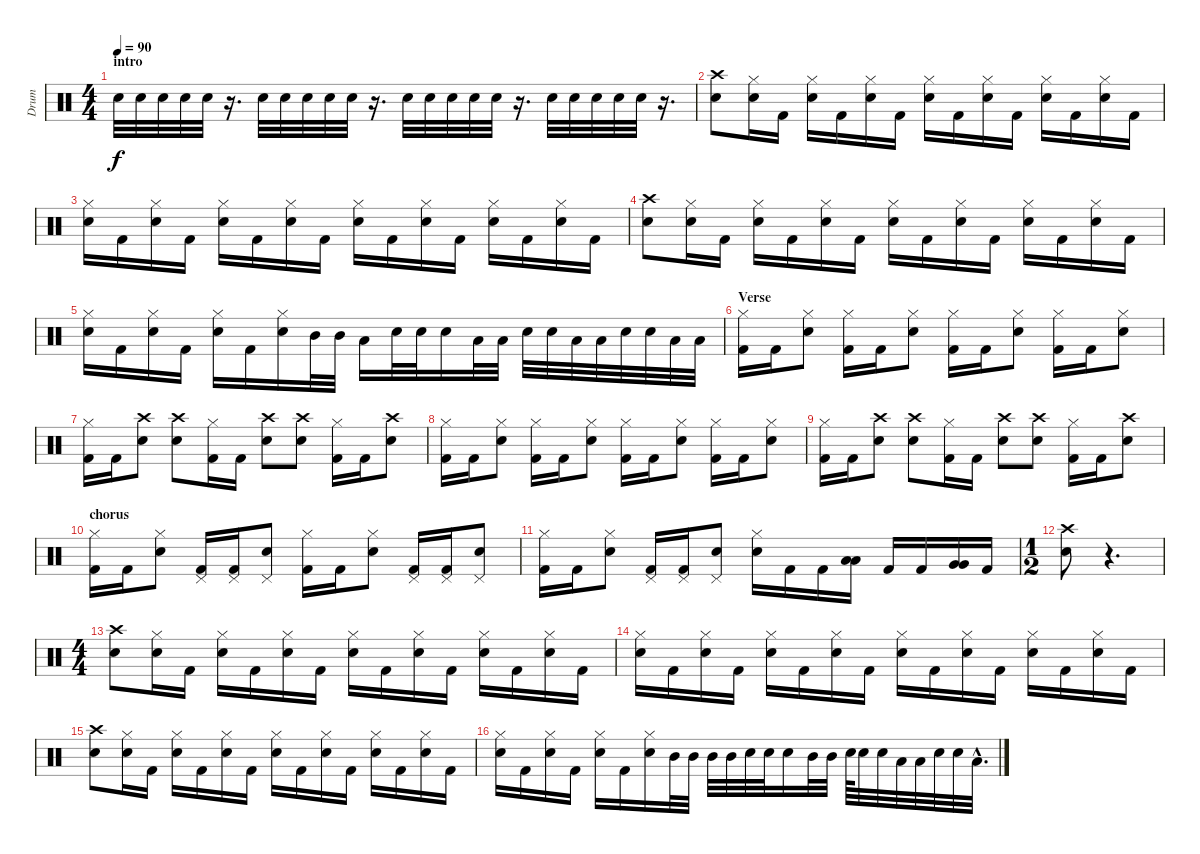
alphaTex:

\track ("Drum" "Drum") {instrument percussion}
\staff {score}
\articulation defaults
\ts (4 4)
\section ("" "intro")
\tempo 90
\clef neutral
\ks c "Electric Snare (hit)".32{dy f} "Electric Snare (hit)".32 "Electric Snare (hit)".32 "Electric Snare (hit)".32 "Electric Snare (hit)".32
r.16{d} "Electric Snare (hit)".32 "Electric Snare (hit)".32 "Electric Snare (hit)".32 "Electric Snare (hit)".32 "Electric Snare (hit)".32 r.16{d} "Electric Snare (hit)".32 "Electric Snare (hit)".32 "Electric Snare (hit)".32 "Electric Snare (hit)".32 "Electric Snare (hit)".32 r.16{d} "Electric Snare (hit)".32 "Electric Snare (hit)".32 "Electric Snare (hit)".32 "Electric Snare (hit)".32 "Electric Snare (hit)".32 r.16{d} |
("Crash high (hit)" "Electric Snare (hit)").8 ("Hi-Hat (closed)" "Electric Snare (hit)").16 "Kick (hit) 2".16 ("Hi-Hat (closed)" "Electric Snare (hit)").16 "Kick (hit) 2".16 ("Hi-Hat (closed)" "Electric Snare (hit)").16 "Kick (hit) 2".16 ("Hi-Hat (closed)" "Electric Snare (hit)").16 "Kick (hit) 2".16 ("Hi-Hat (closed)" "Electric Snare (hit)").16 "Kick (hit) 2".16 ("Hi-Hat (closed)" "Electric Snare (hit)").16 "Kick (hit) 2".16 ("Hi-Hat (closed)" "Electric Snare (hit)").16 "Kick (hit) 2".16 |
("Hi-Hat (closed)" "Electric Snare (hit)").16 "Kick (hit) 2".16 ("Hi-Hat (closed)" "Electric Snare (hit)").16 "Kick (hit) 2".16 ("Hi-Hat (closed)" "Electric Snare (hit)").16 "Kick (hit) 2".16 ("Hi-Hat (closed)" "Electric Snare (hit)").16 "Kick (hit) 2".16 ("Hi-Hat (closed)" "Electric Snare (hit)").16 "Kick (hit) 2".16 ("Hi-Hat (closed)" "Electric Snare (hit)").16 "Kick (hit) 2".16 ("Hi-Hat (closed)" "Electric Snare (hit)").16 "Kick (hit) 2".16 ("Hi-Hat (closed)" "Electric Snare (hit)").16 "Kick (hit) 2".16 |
("Crash high (hit)" "Electric Snare (hit)").8 ("Hi-Hat (closed)" "Electric Snare (hit)").16 "Kick (hit) 2".16 ("Hi-Hat (closed)" "Electric Snare (hit)").16 "Kick (hit) 2".16 ("Hi-Hat (closed)" "Electric Snare (hit)").16 "Kick (hit) 2".16 ("Hi-Hat (closed)" "Electric Snare (hit)").16 "Kick (hit) 2".16 ("Hi-Hat (closed)" "Electric Snare (hit)").16 "Kick (hit) 2".16 ("Hi-Hat (closed)" "Electric Snare (hit)").16 "Kick (hit) 2".16 ("Hi-Hat (closed)" "Electric Snare (hit)").16 "Kick (hit) 2".16 |
("Hi-Hat (closed)" "Electric Snare (hit)").16 "Kick (hit) 2".16 ("Hi-Hat (closed)" "Electric Snare (hit)").16 "Kick (hit) 2".16 ("Hi-Hat (closed)" "Electric Snare (hit)").16 "Kick (hit) 2".16 ("Hi-Hat (closed)" "Electric Snare (hit)").16 "Mid Tom (hit)".32 "Mid Tom (hit)".32 "Low Tom (hit)".16 "Electric Snare (hit)".32 "Electric Snare (hit)".32 "Electric Snare (hit)".16 "Low Tom (hit)".32 "Low Tom (hit)".32 "Electric Snare (hit)".32 "Electric Snare (hit)".32 "Low Tom (hit)".32 "Low Tom (hit)".32 "Electric Snare (hit)".32 "Electric Snare (hit)".32 "Low Tom (hit)".32 "Low Tom (hit)".32 |
\section ("" "Verse")
("Hi-Hat (closed)" "Kick (hit) 2").16 "Kick (hit) 2".16 ("Hi-Hat (closed)" "Electric Snare (hit)").8 ("Hi-Hat (closed)" "Kick (hit) 2").16 "Kick (hit) 2".16 ("Hi-Hat (closed)" "Electric Snare (hit)").8 ("Hi-Hat (closed)" "Kick (hit) 2").16 "Kick (hit) 2".16 ("Hi-Hat (closed)" "Electric Snare (hit)").8 ("Hi-Hat (closed)" "Kick (hit) 2").16 "Kick (hit) 2".16 ("Hi-Hat (closed)" "Electric Snare (hit)").8 |
("Hi-Hat (closed)" "Kick (hit) 2").16 "Kick (hit) 2".16 ("Crash high (hit)" "Electric Snare (hit)").8 ("Crash high (hit)" "Electric Snare (hit)").8 ("Hi-Hat (closed)" "Kick (hit) 2").16 "Kick (hit) 2".16 ("Crash high (hit)" "Electric Snare (hit)").8 ("Crash high (hit)" "Electric Snare (hit)").8 ("Hi-Hat (closed)" "Kick (hit) 2").16 "Kick (hit) 2".16 ("Crash high (hit)" "Electric Snare (hit)").8 |
("Hi-Hat (closed)" "Kick (hit) 2").16 "Kick (hit) 2".16 ("Hi-Hat (closed)" "Electric Snare (hit)").8 ("Hi-Hat (closed)" "Kick (hit) 2").16 "Kick (hit) 2".16 ("Hi-Hat (closed)" "Electric Snare (hit)").8 ("Hi-Hat (closed)" "Kick (hit) 2").16 "Kick (hit) 2".16 ("Hi-Hat (closed)" "Electric Snare (hit)").8 ("Hi-Hat (closed)" "Kick (hit) 2").16 "Kick (hit) 2".16 ("Hi-Hat (closed)" "Electric Snare (hit)").8 |
("Hi-Hat (closed)" "Kick (hit) 2").16 "Kick (hit) 2".16 ("Crash high (hit)" "Electric Snare (hit)").8 ("Crash high (hit)" "Electric Snare (hit)").8 ("Hi-Hat (closed)" "Kick (hit) 2").16 "Kick (hit) 2".16 ("Crash high (hit)" "Electric Snare (hit)").8 ("Crash high (hit)" "Electric Snare (hit)").8 ("Hi-Hat (closed)" "Kick (hit) 2").16 "Kick (hit) 2".16 ("Crash high (hit)" "Electric Snare (hit)").8 |
\section ("" "chorus")
("Hi-Hat (closed)" "Kick (hit) 2").16 "Kick (hit) 2".16 ("Hi-Hat (closed)" "Electric Snare (hit)").8 ("Pedal Hi-Hat (hit)" "Kick (hit) 2").16 ("Pedal Hi-Hat (hit)" "Kick (hit) 2").16 ("Pedal Hi-Hat (hit)" "Electric Snare (hit)").8 ("Hi-Hat (closed)" "Kick (hit) 2").16 "Kick (hit) 2".16 ("Hi-Hat (closed)" "Electric Snare (hit)").8 ("Pedal Hi-Hat (hit)" "Kick (hit) 2").16 ("Pedal Hi-Hat (hit)" "Kick (hit) 2").16 ("Pedal Hi-Hat (hit)" "Electric Snare (hit)").8 |
("Hi-Hat (closed)" "Kick (hit) 2").16 "Kick (hit) 2".16 ("Hi-Hat (closed)" "Electric Snare (hit)").8 ("Pedal Hi-Hat (hit)" "Kick (hit) 2").16 ("Pedal Hi-Hat (hit)" "Kick (hit) 2").16 ("Pedal Hi-Hat (hit)" "Electric Snare (hit)").8 ("Hi-Hat (closed)" "Electric Snare (hit)").16 "Kick (hit) 2".16 "Kick (hit) 2".16 ("Low Tom (hit)" "Low Tom (hit)").16 "Kick (hit) 2".16 "Kick (hit) 2".16 ("Very Low Tom (hit)" "Very Low Tom (hit)").16 "Kick (hit) 2".16 |
\ts (1 2)
("Crash high (hit)" "Electric Snare (hit)").8 r.4{d} |
\ts (4 4)
("Crash high (hit)" "Electric Snare (hit)").8 ("Hi-Hat (closed)" "Electric Snare (hit)").16 "Kick (hit) 2".16 ("Hi-Hat (closed)" "Electric Snare (hit)").16 "Kick (hit) 2".16 ("Hi-Hat (closed)" "Electric Snare (hit)").16 "Kick (hit) 2".16 ("Hi-Hat (closed)" "Electric Snare (hit)").16 "Kick (hit) 2".16 ("Hi-Hat (closed)" "Electric Snare (hit)").16 "Kick (hit) 2".16 ("Hi-Hat (closed)" "Electric Snare (hit)").16 "Kick (hit) 2".16 ("Hi-Hat (closed)" "Electric Snare (hit)").16 "Kick (hit) 2".16 |
("Hi-Hat (closed)" "Electric Snare (hit)").16 "Kick (hit) 2".16 ("Hi-Hat (closed)" "Electric Snare (hit)").16 "Kick (hit) 2".16 ("Hi-Hat (closed)" "Electric Snare (hit)").16 "Kick (hit) 2".16 ("Hi-Hat (closed)" "Electric Snare (hit)").16 "Kick (hit) 2".16 ("Hi-Hat (closed)" "Electric Snare (hit)").16 "Kick (hit) 2".16 ("Hi-Hat (closed)" "Electric Snare (hit)").16 "Kick (hit) 2".16 ("Hi-Hat (closed)" "Electric Snare (hit)").16 "Kick (hit) 2".16 ("Hi-Hat (closed)" "Electric Snare (hit)").16 "Kick (hit) 2".16 |
("Crash high (hit)" "Electric Snare (hit)").8 ("Hi-Hat (closed)" "Electric Snare (hit)").16 "Kick (hit) 2".16 ("Hi-Hat (closed)" "Electric Snare (hit)").16 "Kick (hit) 2".16 ("Hi-Hat (closed)" "Electric Snare (hit)").16 "Kick (hit) 2".16 ("Hi-Hat (closed)" "Electric Snare (hit)").16 "Kick (hit) 2".16 ("Hi-Hat (closed)" "Electric Snare (hit)").16 "Kick (hit) 2".16 ("Hi-Hat (closed)" "Electric Snare (hit)").16 "Kick (hit) 2".16 ("Hi-Hat (closed)" "Electric Snare (hit)").16 "Kick (hit) 2".16 |
("Hi-Hat (closed)" "Electric Snare (hit)").16 "Kick (hit) 2".16 ("Hi-Hat (closed)" "Electric Snare (hit)").16 "Kick (hit) 2".16 ("Hi-Hat (closed)" "Electric Snare (hit)").16 "Kick (hit) 2".16 ("Hi-Hat (closed)" "Electric Snare (hit)").16 "Mid Tom (hit)".32 "Mid Tom (hit)".32 "Mid Tom (hit)".32 "Mid Tom (hit)".32 "Electric Snare (hit)".32 "Electric Snare (hit)".32 "Electric Snare (hit)".16 "Mid Tom (hit)".32 "Mid Tom (hit)".32 "Electric Snare (hit)".64 "Electric Snare (hit)".32 "Electric Snare (hit)".32 "Low Tom (hit)".32 "Low Tom (hit)".32 "Electric Snare (hit)".32 "Electric Snare (hit)".32 "Low Tom (hit)"{hac}.32{d}
